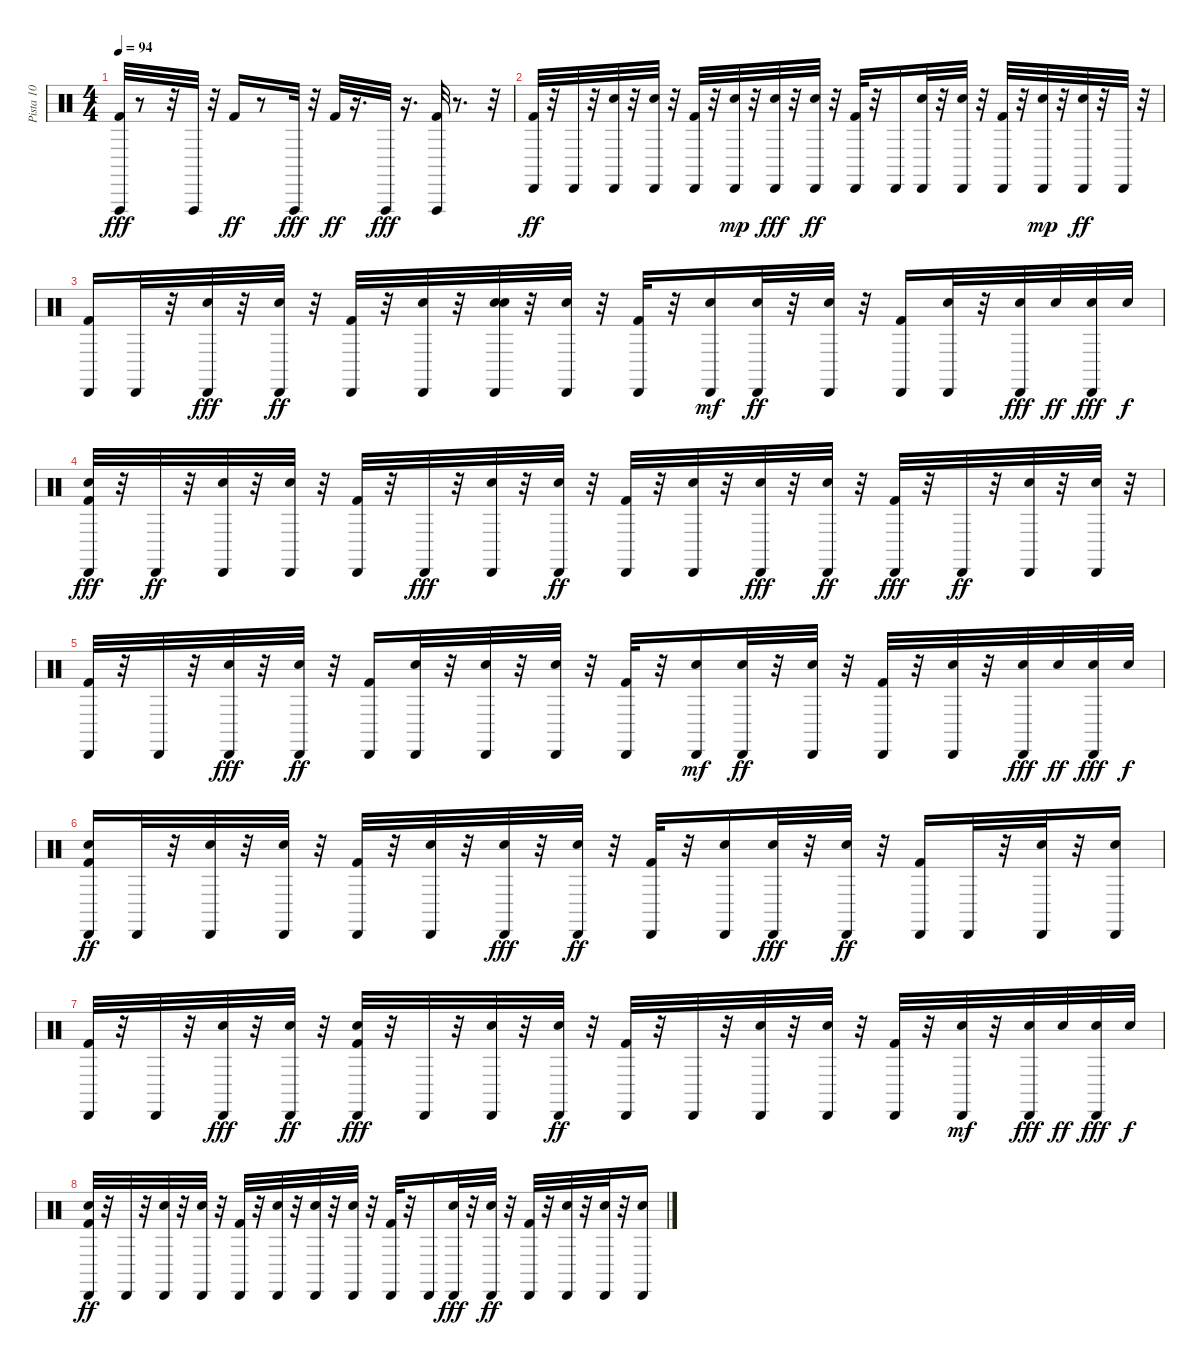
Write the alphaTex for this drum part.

\track ("Pista 10" "Pista 10") {instrument percussion}
\staff {score}
\articulation defaults
\ts (4 4)
\tempo 94
\clef neutral
\ks c
("Kick (hit) 2" "Vibraslap (hit)").32{dy fff} r.8 r.32 "Vibraslap (hit)".32 r.32 "Kick (hit) 2".16{dy ff} r.8 "Vibraslap (hit)".32{dy fff} r.32 "Kick (hit) 2".32{dy ff} r.16{d} "Vibraslap (hit)".32{dy fff} r.16{d} ("Kick (hit) 2" "Vibraslap (hit)").32 r.8{d} r.32 |
("Cabasa (hit)" "Kick (hit) 2").32{dy ff} r.32 "Cabasa (hit)".32 r.32 ("Snare (hit) 2" "Cabasa (hit)").32 r.32 ("Electric Snare (hit)" "Cabasa (hit)").32 r.32 ("Cabasa (hit)" "Kick (hit) 2").32 r.32 ("Cabasa (hit)" "Electric Snare (hit)").32{dy mp} r.32 ("Cabasa (hit)" "Snare (hit) 2").32{dy fff} r.32 ("Cabasa (hit)" "Electric Snare (hit)").32{dy ff} r.32 ("Kick (hit) 2" "Cabasa (hit)").32 r.32 "Cabasa (hit)".16 ("Snare (hit) 2" "Cabasa (hit)").32 r.32 ("Cabasa (hit)" "Electric Snare (hit)").32 r.32 ("Cabasa (hit)" "Kick (hit) 2").32 r.32 ("Cabasa (hit)" "Electric Snare (hit)").32{dy mp} r.32 ("Snare (hit) 2" "Cabasa (hit)").32{dy ff} r.32 "Cabasa (hit)".32 r.32 |
("Kick (hit) 2" "Cabasa (hit)").16 "Cabasa (hit)".32 r.32 ("Cabasa (hit)" "Snare (hit) 2").32{dy fff} r.32 ("Cabasa (hit)" "Electric Snare (hit)").32{dy ff} r.32 ("Kick (hit) 2" "Cabasa (hit)").32 r.32 ("Electric Snare (hit)" "Cabasa (hit)").32 r.32 ("Snare (hit) 2" "Electric Snare (hit)" "Cabasa (hit)").32 r.32 ("Cabasa (hit)" "Electric Snare (hit)").32 r.32 ("Cabasa (hit)" "Kick (hit) 2").32 r.32 ("Cabasa (hit)" "Electric Snare (hit)").16{dy mf} ("Snare (hit) 2" "Cabasa (hit)").32{dy ff} r.32 ("Electric Snare (hit)" "Cabasa (hit)").32 r.32 ("Kick (hit) 2" "Cabasa (hit)").16 ("Electric Snare (hit)" "Cabasa (hit)").32 r.32 ("Cabasa (hit)" "Snare (hit) 2").32{dy fff} "Electric Snare (hit)".32{dy ff} ("Cabasa (hit)" "Snare (hit) 2").32{dy fff} "Electric Snare (hit)".32{dy f} |
("Cabasa (hit)" "Snare (hit) 2" "Kick (hit) 2").32{dy fff} r.32 "Cabasa (hit)".32{dy ff} r.32 ("Snare (hit) 2" "Cabasa (hit)").32 r.32 ("Electric Snare (hit)" "Cabasa (hit)").32 r.32 ("Cabasa (hit)" "Kick (hit) 2").32 r.32 "Cabasa (hit)".32{dy fff} r.32 ("Cabasa (hit)" "Snare (hit) 2").32 r.32 ("Electric Snare (hit)" "Cabasa (hit)").32{dy ff} r.32 ("Kick (hit) 2" "Cabasa (hit)").32 r.32 ("Electric Snare (hit)" "Cabasa (hit)").32 r.32 ("Cabasa (hit)" "Snare (hit) 2").32{dy fff} r.32 ("Cabasa (hit)" "Electric Snare (hit)").32{dy ff} r.32 ("Cabasa (hit)" "Kick (hit) 2").32{dy fff} r.32 "Cabasa (hit)".32{dy ff} r.32 ("Snare (hit) 2" "Cabasa (hit)").32 r.32 ("Electric Snare (hit)" "Cabasa (hit)").32 r.32 |
("Kick (hit) 2" "Cabasa (hit)").32 r.32 "Cabasa (hit)".32 r.32 ("Cabasa (hit)" "Snare (hit) 2").32{dy fff} r.32 ("Cabasa (hit)" "Electric Snare (hit)").32{dy ff} r.32 ("Kick (hit) 2" "Cabasa (hit)").16 ("Electric Snare (hit)" "Cabasa (hit)").32 r.32 ("Snare (hit) 2" "Cabasa (hit)").32 r.32 ("Cabasa (hit)" "Electric Snare (hit)").32 r.32 ("Cabasa (hit)" "Kick (hit) 2").32 r.32 ("Cabasa (hit)" "Electric Snare (hit)").16{dy mf} ("Snare (hit) 2" "Cabasa (hit)").32{dy ff} r.32 ("Electric Snare (hit)" "Cabasa (hit)").32 r.32 ("Kick (hit) 2" "Cabasa (hit)").32 r.32 ("Cabasa (hit)" "Electric Snare (hit)").32 r.32 ("Cabasa (hit)" "Snare (hit) 2").32{dy fff} "Electric Snare (hit)".32{dy ff} ("Cabasa (hit)" "Snare (hit) 2").32{dy fff} "Electric Snare (hit)".32{dy f} |
("Kick (hit) 2" "Snare (hit) 2" "Cabasa (hit)").16{dy ff} "Cabasa (hit)".32 r.32 ("Snare (hit) 2" "Cabasa (hit)").32 r.32 ("Cabasa (hit)" "Electric Snare (hit)").32 r.32 ("Cabasa (hit)" "Kick (hit) 2").32 r.32 ("Cabasa (hit)" "Electric Snare (hit)").32 r.32 ("Cabasa (hit)" "Snare (hit) 2").32{dy fff} r.32 ("Electric Snare (hit)" "Cabasa (hit)").32{dy ff} r.32 ("Kick (hit) 2" "Cabasa (hit)").32 r.32 ("Electric Snare (hit)" "Cabasa (hit)").16 ("Cabasa (hit)" "Snare (hit) 2").32{dy fff} r.32 ("Cabasa (hit)" "Electric Snare (hit)").32{dy ff} r.32 ("Cabasa (hit)" "Kick (hit) 2").16 "Cabasa (hit)".32 r.32 ("Snare (hit) 2" "Cabasa (hit)").32 r.32 ("Electric Snare (hit)" "Cabasa (hit)").16 |
("Cabasa (hit)" "Kick (hit) 2").32 r.32 "Cabasa (hit)".32 r.32 ("Cabasa (hit)" "Snare (hit) 2").32{dy fff} r.32 ("Electric Snare (hit)" "Cabasa (hit)").32{dy ff} r.32 ("Kick (hit) 2" "Snare (hit) 2" "Cabasa (hit)").32{dy fff} r.32 "Cabasa (hit)".32 r.32 ("Cabasa (hit)" "Snare (hit) 2").32 r.32 ("Cabasa (hit)" "Electric Snare (hit)").32{dy ff} r.32 ("Cabasa (hit)" "Kick (hit) 2").32 r.32 "Cabasa (hit)".32 r.32 ("Snare (hit) 2" "Cabasa (hit)").32 r.32 ("Electric Snare (hit)" "Cabasa (hit)").32 r.32 ("Kick (hit) 2" "Cabasa (hit)").32 r.32 ("Cabasa (hit)" "Electric Snare (hit)").32{dy mf} r.32 ("Cabasa (hit)" "Snare (hit) 2").32{dy fff} "Electric Snare (hit)".32{dy ff} ("Cabasa (hit)" "Snare (hit) 2").32{dy fff} "Electric Snare (hit)".32{dy f} |
("Kick (hit) 2" "Snare (hit) 2" "Cabasa (hit)").32{dy ff} r.32 "Cabasa (hit)".32 r.32 ("Snare (hit) 2" "Cabasa (hit)").32 r.32 ("Cabasa (hit)" "Electric Snare (hit)").32 r.32 ("Cabasa (hit)" "Kick (hit) 2").32 r.32 ("Cabasa (hit)" "Electric Snare (hit)").32 r.32 ("Snare (hit) 2" "Cabasa (hit)").32 r.32 ("Electric Snare (hit)" "Cabasa (hit)").32 r.32 ("Kick (hit) 2" "Cabasa (hit)").32 r.32 "Cabasa (hit)".16 ("Cabasa (hit)" "Snare (hit) 2").32{dy fff} r.32 ("Cabasa (hit)" "Electric Snare (hit)").32{dy ff} r.32 ("Kick (hit) 2" "Cabasa (hit)").32 r.32 ("Electric Snare (hit)" "Cabasa (hit)").32 r.32 ("Snare (hit) 2" "Cabasa (hit)").32 r.32 ("Electric Snare (hit)" "Cabasa (hit)").16
